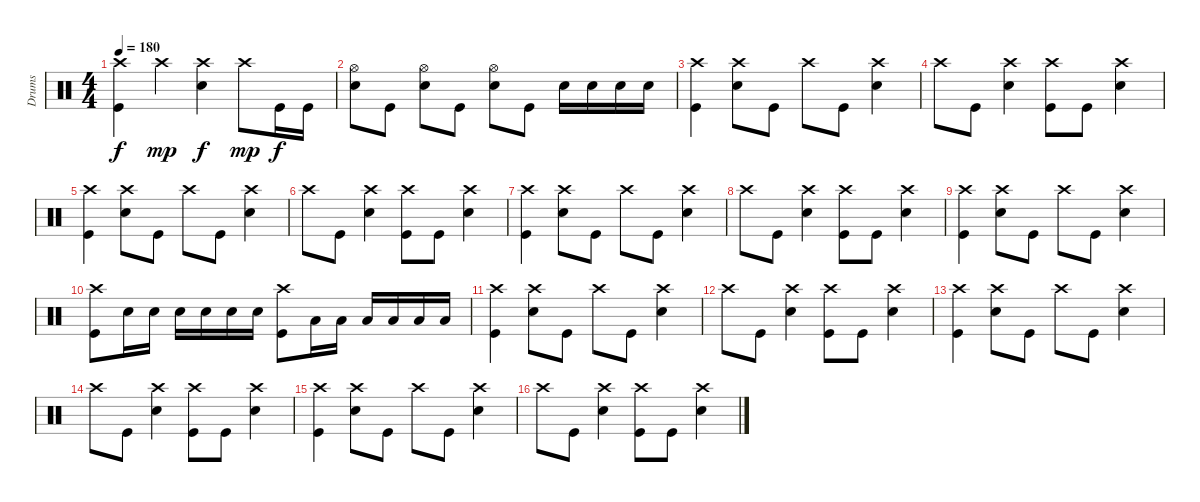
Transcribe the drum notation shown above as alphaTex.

\track ("Drums" "Drums") {instrument percussion}
\staff {score}
\articulation defaults
\ts (4 4)
\tempo 180
\clef neutral
\ks c
("Crash high (hit)" "Kick (hit)").4{dy f} "Crash high (hit)".4{dy mp} ("Crash high (hit)" "Electric Snare (hit)").4{dy f} "Crash high (hit)".8{dy mp} "Kick (hit)".16{dy f} "Kick (hit)".16 |
("Hi-Hat (open)" "Electric Snare (hit)").8 "Kick (hit)".8 ("Hi-Hat (open)" "Electric Snare (hit)").8 "Kick (hit)".8 ("Hi-Hat (open)" "Electric Snare (hit)").8 "Kick (hit)".8 "Electric Snare (hit)".16 "Electric Snare (hit)".16 "Electric Snare (hit)".16 "Electric Snare (hit)".16 |
("Crash high (hit)" "Kick (hit)").4 ("Crash high (hit)" "Electric Snare (hit)").8 "Kick (hit)".8 "Crash high (hit)".8 "Kick (hit)".8 ("Crash high (hit)" "Electric Snare (hit)").4 |
"Crash high (hit)".8 "Kick (hit)".8 ("Crash high (hit)" "Electric Snare (hit)").4 ("Crash high (hit)" "Kick (hit)").8 "Kick (hit)".8 ("Crash high (hit)" "Electric Snare (hit)").4 |
("Crash high (hit)" "Kick (hit)").4 ("Crash high (hit)" "Electric Snare (hit)").8 "Kick (hit)".8 "Crash high (hit)".8 "Kick (hit)".8 ("Crash high (hit)" "Electric Snare (hit)").4 |
"Crash high (hit)".8 "Kick (hit)".8 ("Crash high (hit)" "Electric Snare (hit)").4 ("Crash high (hit)" "Kick (hit)").8 "Kick (hit)".8 ("Crash high (hit)" "Electric Snare (hit)").4 |
("Crash high (hit)" "Kick (hit)").4 ("Crash high (hit)" "Electric Snare (hit)").8 "Kick (hit)".8 "Crash high (hit)".8 "Kick (hit)".8 ("Crash high (hit)" "Electric Snare (hit)").4 |
"Crash high (hit)".8 "Kick (hit)".8 ("Crash high (hit)" "Electric Snare (hit)").4 ("Crash high (hit)" "Kick (hit)").8 "Kick (hit)".8 ("Crash high (hit)" "Electric Snare (hit)").4 |
("Crash high (hit)" "Kick (hit)").4 ("Crash high (hit)" "Electric Snare (hit)").8 "Kick (hit)".8 "Crash high (hit)".8 "Kick (hit)".8 ("Crash high (hit)" "Electric Snare (hit)").4 |
("Crash high (hit)" "Kick (hit)").8 "Electric Snare (hit)".16 "Electric Snare (hit)".16 "Electric Snare (hit)".16 "Electric Snare (hit)".16 "Electric Snare (hit)".16 "Electric Snare (hit)".16 ("Crash high (hit)" "Kick (hit)").8 "Low Tom (hit)".16 "Low Tom (hit)".16 "Low Tom (hit)".16 "Low Tom (hit)".16 "Low Tom (hit)".16 "Low Tom (hit)".16 |
("Crash high (hit)" "Kick (hit)").4 ("Crash high (hit)" "Electric Snare (hit)").8 "Kick (hit)".8 "Crash high (hit)".8 "Kick (hit)".8 ("Crash high (hit)" "Electric Snare (hit)").4 |
"Crash high (hit)".8 "Kick (hit)".8 ("Crash high (hit)" "Electric Snare (hit)").4 ("Crash high (hit)" "Kick (hit)").8 "Kick (hit)".8 ("Crash high (hit)" "Electric Snare (hit)").4 |
("Crash high (hit)" "Kick (hit)").4 ("Crash high (hit)" "Electric Snare (hit)").8 "Kick (hit)".8 "Crash high (hit)".8 "Kick (hit)".8 ("Crash high (hit)" "Electric Snare (hit)").4 |
"Crash high (hit)".8 "Kick (hit)".8 ("Crash high (hit)" "Electric Snare (hit)").4 ("Crash high (hit)" "Kick (hit)").8 "Kick (hit)".8 ("Crash high (hit)" "Electric Snare (hit)").4 |
("Crash high (hit)" "Kick (hit)").4 ("Crash high (hit)" "Electric Snare (hit)").8 "Kick (hit)".8 "Crash high (hit)".8 "Kick (hit)".8 ("Crash high (hit)" "Electric Snare (hit)").4 |
"Crash high (hit)".8 "Kick (hit)".8 ("Crash high (hit)" "Electric Snare (hit)").4 ("Crash high (hit)" "Kick (hit)").8 "Kick (hit)".8 ("Crash high (hit)" "Electric Snare (hit)").4
